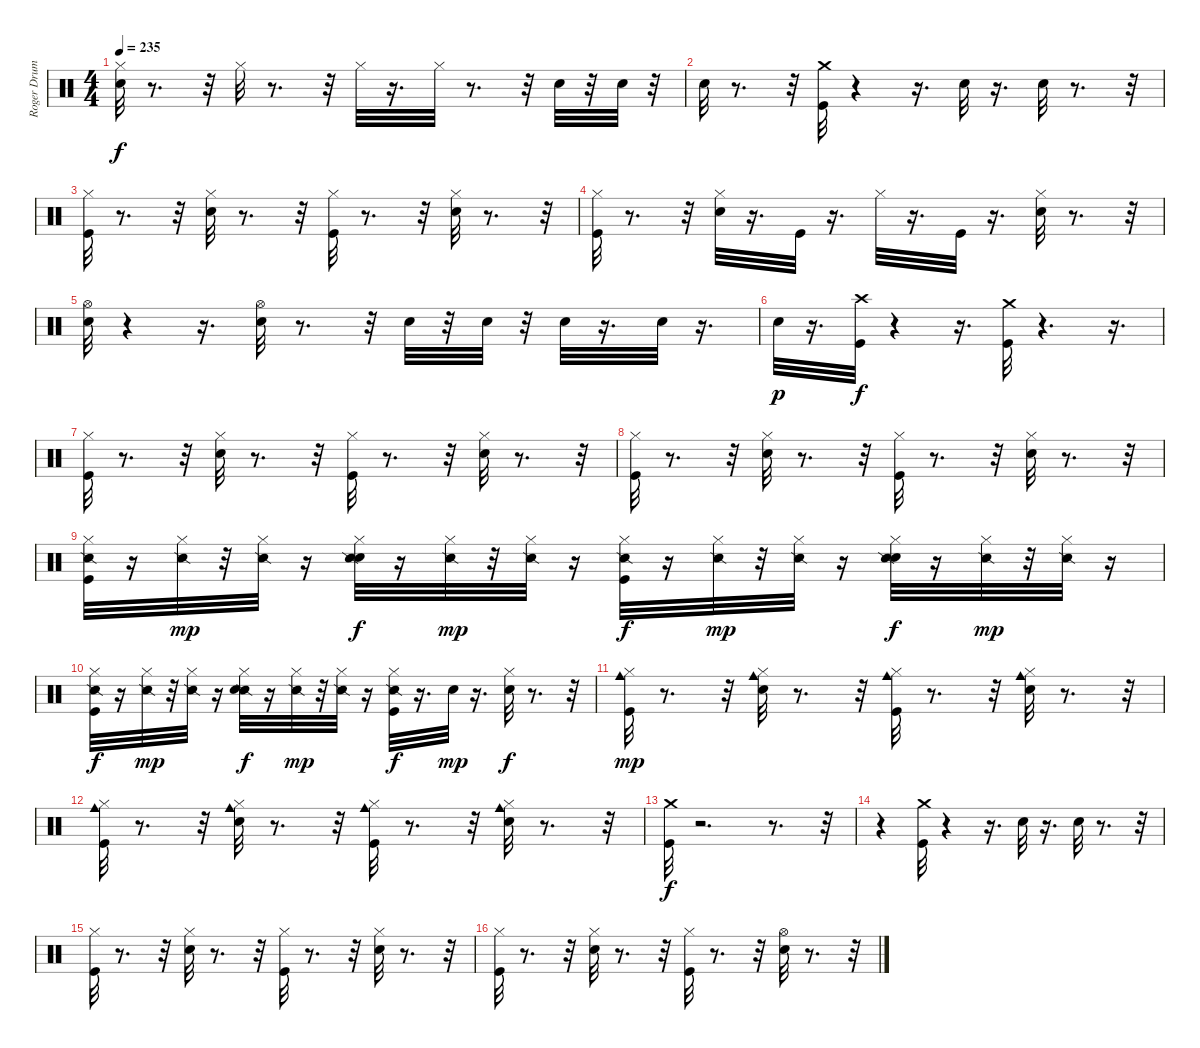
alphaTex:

\track ("Roger Drums" "Roger Drum") {instrument percussion}
\staff {score}
\articulation defaults
\ts (4 4)
\tempo 235
\clef neutral
\ks c
("Hi-Hat (closed)" "Electric Snare (hit)").32{dy f} r.8{d} r.32 "Hi-Hat (closed)".32 r.8{d} r.32 "Hi-Hat (closed)".32 r.16{d} "Hi-Hat (closed)".32 r.8{d} r.32 "Electric Snare (hit)".32 r.32 "Electric Snare (hit)".32 r.32 |
"Electric Snare (hit)".32 r.8{d} r.32 ("Kick (hit)" "Crash medium (hit)").32 r.4 r.16{d} "Electric Snare (hit)".32 r.16{d} "Electric Snare (hit)".32 r.8{d} r.32 |
("Kick (hit)" "Hi-Hat (closed)").32 r.8{d} r.32 ("Hi-Hat (closed)" "Electric Snare (hit)").32 r.8{d} r.32 ("Hi-Hat (closed)" "Kick (hit)").32 r.8{d} r.32 ("Hi-Hat (closed)" "Electric Snare (hit)").32 r.8{d} r.32 |
("Hi-Hat (closed)" "Kick (hit)").32 r.8{d} r.32 ("Hi-Hat (closed)" "Electric Snare (hit)").32 r.16{d} "Kick (hit)".32 r.16{d} "Hi-Hat (closed)".32 r.16{d} "Kick (hit)".32 r.16{d} ("Hi-Hat (closed)" "Electric Snare (hit)").32 r.8{d} r.32 |
("Electric Snare (hit)" "Hi-Hat (open)").32 r.4 r.16{d} ("Electric Snare (hit)" "Hi-Hat (open)").32 r.8{d} r.32 "Electric Snare (hit)".32 r.32 "Electric Snare (hit)".32 r.32 "Electric Snare (hit)".32 r.16{d} "Electric Snare (hit)".32 r.16{d} |
"Electric Snare (hit)".32{dy p} r.16{d} ("Crash high (hit)" "Kick (hit)").32{dy f} r.4 r.16{d} ("Crash medium (hit)" "Kick (hit)").32 r.4{d} r.16{d} |
("Kick (hit)" "Hi-Hat (closed)").32 r.8{d} r.32 ("Hi-Hat (closed)" "Electric Snare (hit)").32 r.8{d} r.32 ("Hi-Hat (closed)" "Kick (hit)").32 r.8{d} r.32 ("Hi-Hat (closed)" "Electric Snare (hit)").32 r.8{d} r.32 |
("Hi-Hat (closed)" "Kick (hit)").32 r.8{d} r.32 ("Hi-Hat (closed)" "Electric Snare (hit)").32 r.8{d} r.32 ("Hi-Hat (closed)" "Kick (hit)").32 r.8{d} r.32 ("Hi-Hat (closed)" "Electric Snare (hit)").32 r.8{d} r.32 |
("Kick (hit)" "Hi-Hat (closed)" "Snare (side stick) 2").32 r.16 ("Hi-Hat (closed)" "Snare (side stick) 2").32{dy mp} r.32 ("Hi-Hat (closed)" "Snare (side stick) 2").32 r.16 ("Hi-Hat (closed)" "Electric Snare (hit)" "Snare (side stick) 2").32{dy f} r.16 ("Hi-Hat (closed)" "Snare (side stick) 2").32{dy mp} r.32 ("Hi-Hat (closed)" "Snare (side stick) 2").32 r.16 ("Hi-Hat (closed)" "Kick (hit)" "Snare (side stick) 2").32{dy f} r.16 ("Hi-Hat (closed)" "Snare (side stick) 2").32{dy mp} r.32 ("Hi-Hat (closed)" "Snare (side stick) 2").32 r.16 ("Electric Snare (hit)" "Hi-Hat (closed)" "Snare (side stick) 2").32{dy f} r.16 ("Hi-Hat (closed)" "Snare (side stick) 2").32{dy mp} r.32 ("Hi-Hat (closed)" "Snare (side stick) 2").32 r.16 |
("Hi-Hat (closed)" "Snare (side stick) 2" "Kick (hit)").32{dy f} r.16 ("Hi-Hat (closed)" "Snare (side stick) 2").32{dy mp} r.32 ("Hi-Hat (closed)" "Snare (side stick) 2").32 r.16 ("Hi-Hat (closed)" "Snare (side stick) 2" "Electric Snare (hit)").32{dy f} r.16 ("Hi-Hat (closed)" "Snare (side stick) 2").32{dy mp} r.32 ("Hi-Hat (closed)" "Snare (side stick) 2").32 r.16 ("Hi-Hat (closed)" "Snare (side stick) 2" "Kick (hit)").32{dy f} r.16{d} "Electric Snare (hit)".32{dy mp} r.16{d} ("Hi-Hat (closed)" "Electric Snare (hit)").32{dy f} r.8{d} r.32 |
("Cowbell medium (hit)" "Hi-Hat (closed)" "Kick (hit)").32{dy mp} r.8{d} r.32 ("Cowbell medium (hit)" "Hi-Hat (closed)" "Electric Snare (hit)").32 r.8{d} r.32 ("Cowbell medium (hit)" "Hi-Hat (closed)" "Kick (hit)").32 r.8{d} r.32 ("Cowbell medium (hit)" "Hi-Hat (closed)" "Electric Snare (hit)").32 r.8{d} r.32 |
("Cowbell medium (hit)" "Hi-Hat (closed)" "Kick (hit)").32 r.8{d} r.32 ("Cowbell medium (hit)" "Hi-Hat (closed)" "Electric Snare (hit)").32 r.8{d} r.32 ("Cowbell medium (hit)" "Hi-Hat (closed)" "Kick (hit)").32 r.8{d} r.32 ("Cowbell medium (hit)" "Hi-Hat (closed)" "Electric Snare (hit)").32 r.8{d} r.32 |
("Crash medium (hit)" "Kick (hit)").32{dy f} r.2{d} r.8{d} r.32 |
r.4 ("Kick (hit)" "Crash medium (hit)").32 r.4 r.16{d} "Electric Snare (hit)".32 r.16{d} "Electric Snare (hit)".32 r.8{d} r.32 |
("Hi-Hat (closed)" "Kick (hit)").32 r.8{d} r.32 ("Hi-Hat (closed)" "Electric Snare (hit)").32 r.8{d} r.32 ("Hi-Hat (closed)" "Kick (hit)").32 r.8{d} r.32 ("Hi-Hat (closed)" "Electric Snare (hit)").32 r.8{d} r.32 |
("Hi-Hat (closed)" "Kick (hit)").32 r.8{d} r.32 ("Hi-Hat (closed)" "Electric Snare (hit)").32 r.8{d} r.32 ("Hi-Hat (closed)" "Kick (hit)").32 r.8{d} r.32 ("Hi-Hat (open)" "Electric Snare (hit)").32 r.8{d} r.32
